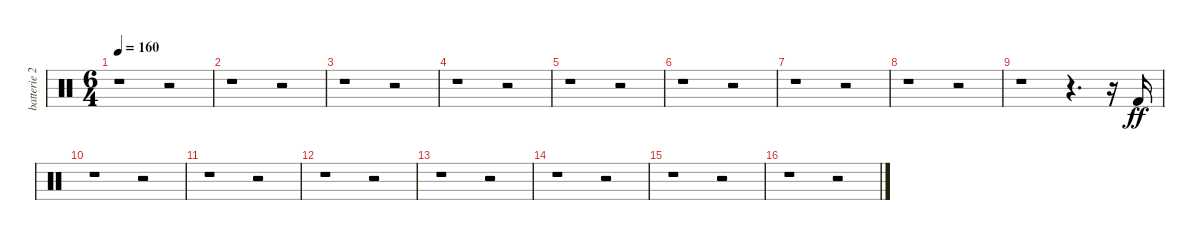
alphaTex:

\track ("batterie 2" "batterie 2") {instrument percussion}
\staff {score}
\articulation defaults
\ts (6 4)
\tempo 160
\clef neutral
\ks c
r.1{dy ff} r.2 |
r.1 r.2 |
r.1 r.2 |
r.1 r.2 |
r.1 r.2 |
r.1 r.2 |
r.1 r.2 |
r.1 r.2 |
r.1 r.4{d} r.16 "Kick (hit) 2".16 |
r.1 r.2 |
r.1 r.2 |
r.1 r.2 |
r.1 r.2 |
r.1 r.2 |
r.1 r.2 |
r.1 r.2
